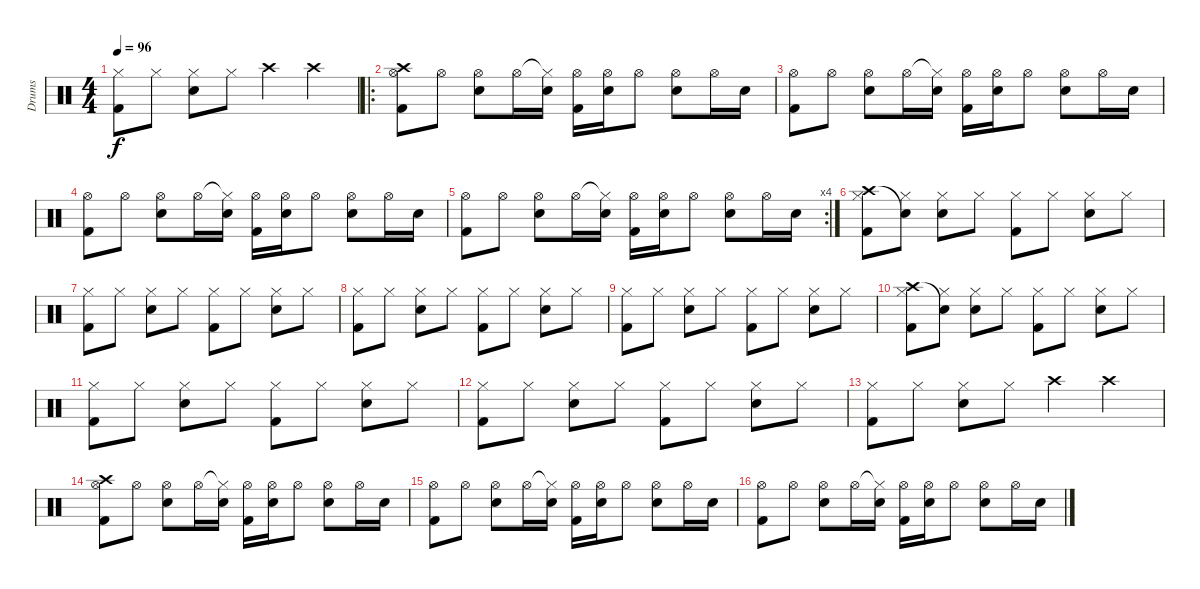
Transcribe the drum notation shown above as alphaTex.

\track ("Drums" "Drums") {instrument percussion}
\staff {score}
\articulation defaults
\ts (4 4)
\tempo 96
\clef neutral
\ks c
("Hi-Hat (closed)" "Kick (hit) 2").8{dy f} "Hi-Hat (closed)".8 ("Hi-Hat (closed)" "Snare (hit) 2").8 "Hi-Hat (closed)".8 "Crash high (hit)".4 "Crash high (hit)".4 |
\ro
("Crash high (hit)" "Hi-Hat (open)" "Kick (hit) 2").8 "Hi-Hat (open)".8 ("Hi-Hat (open)" "Snare (hit) 2").8 "Hi-Hat (open)".16 ("Hi-Hat (closed)"{t} "Snare (hit) 2").16 ("Hi-Hat (open)" "Kick (hit) 2").16 ("Hi-Hat (open)" "Snare (hit) 2").16 "Hi-Hat (open)".8 ("Hi-Hat (open)" "Snare (hit) 2").8 "Hi-Hat (open)".16 "Snare (hit) 2".16 |
("Hi-Hat (open)" "Kick (hit) 2").8 "Hi-Hat (open)".8 ("Hi-Hat (open)" "Snare (hit) 2").8 "Hi-Hat (open)".16 ("Hi-Hat (closed)"{t} "Snare (hit) 2").16 ("Hi-Hat (open)" "Kick (hit) 2").16 ("Hi-Hat (open)" "Snare (hit) 2").16 "Hi-Hat (open)".8 ("Hi-Hat (open)" "Snare (hit) 2").8 "Hi-Hat (open)".16 "Snare (hit) 2".16 |
("Hi-Hat (open)" "Kick (hit) 2").8 "Hi-Hat (open)".8 ("Hi-Hat (open)" "Snare (hit) 2").8 "Hi-Hat (open)".16 ("Hi-Hat (closed)"{t} "Snare (hit) 2").16 ("Hi-Hat (open)" "Kick (hit) 2").16 ("Hi-Hat (open)" "Snare (hit) 2").16 "Hi-Hat (open)".8 ("Hi-Hat (open)" "Snare (hit) 2").8 "Hi-Hat (open)".16 "Snare (hit) 2".16 |
\rc 4
("Hi-Hat (open)" "Kick (hit) 2").8 "Hi-Hat (open)".8 ("Hi-Hat (open)" "Snare (hit) 2").8 "Hi-Hat (open)".16 ("Hi-Hat (closed)"{t} "Snare (hit) 2").16 ("Hi-Hat (open)" "Kick (hit) 2").16 ("Hi-Hat (open)" "Snare (hit) 2").16 "Hi-Hat (open)".8 ("Hi-Hat (open)" "Snare (hit) 2").8 "Hi-Hat (open)".16 "Snare (hit) 2".16 |
("Crash high (hit)" "Hi-Hat (closed)" "Kick (hit) 2").8 ("Snare (hit)"{t} "Hi-Hat (closed)").8 ("Hi-Hat (closed)" "Snare (hit) 2").8 "Hi-Hat (closed)".8 ("Hi-Hat (closed)" "Kick (hit) 2").8 "Hi-Hat (closed)".8 ("Hi-Hat (closed)" "Snare (hit) 2").8 "Hi-Hat (closed)".8 |
("Hi-Hat (closed)" "Kick (hit) 2").8 "Hi-Hat (closed)".8 ("Hi-Hat (closed)" "Snare (hit) 2").8 "Hi-Hat (closed)".8 ("Hi-Hat (closed)" "Kick (hit) 2").8 "Hi-Hat (closed)".8 ("Hi-Hat (closed)" "Snare (hit) 2").8 "Hi-Hat (closed)".8 |
("Hi-Hat (closed)" "Kick (hit) 2").8 "Hi-Hat (closed)".8 ("Hi-Hat (closed)" "Snare (hit) 2").8 "Hi-Hat (closed)".8 ("Hi-Hat (closed)" "Kick (hit) 2").8 "Hi-Hat (closed)".8 ("Hi-Hat (closed)" "Snare (hit) 2").8 "Hi-Hat (closed)".8 |
("Hi-Hat (closed)" "Kick (hit) 2").8 "Hi-Hat (closed)".8 ("Hi-Hat (closed)" "Snare (hit) 2").8 "Hi-Hat (closed)".8 ("Hi-Hat (closed)" "Kick (hit) 2").8 "Hi-Hat (closed)".8 ("Hi-Hat (closed)" "Snare (hit) 2").8 "Hi-Hat (closed)".8 |
("Crash high (hit)" "Hi-Hat (closed)" "Kick (hit) 2").8 ("Snare (hit)"{t} "Hi-Hat (closed)").8 ("Hi-Hat (closed)" "Snare (hit) 2").8 "Hi-Hat (closed)".8 ("Hi-Hat (closed)" "Kick (hit) 2").8 "Hi-Hat (closed)".8 ("Hi-Hat (closed)" "Snare (hit) 2").8 "Hi-Hat (closed)".8 |
("Hi-Hat (closed)" "Kick (hit) 2").8 "Hi-Hat (closed)".8 ("Hi-Hat (closed)" "Snare (hit) 2").8 "Hi-Hat (closed)".8 ("Hi-Hat (closed)" "Kick (hit) 2").8 "Hi-Hat (closed)".8 ("Hi-Hat (closed)" "Snare (hit) 2").8 "Hi-Hat (closed)".8 |
("Hi-Hat (closed)" "Kick (hit) 2").8 "Hi-Hat (closed)".8 ("Hi-Hat (closed)" "Snare (hit) 2").8 "Hi-Hat (closed)".8 ("Hi-Hat (closed)" "Kick (hit) 2").8 "Hi-Hat (closed)".8 ("Hi-Hat (closed)" "Snare (hit) 2").8 "Hi-Hat (closed)".8 |
("Hi-Hat (closed)" "Kick (hit) 2").8 "Hi-Hat (closed)".8 ("Hi-Hat (closed)" "Snare (hit) 2").8 "Hi-Hat (closed)".8 "Crash high (hit)".4 "Crash high (hit)".4 |
("Crash high (hit)" "Hi-Hat (open)" "Kick (hit) 2").8 "Hi-Hat (open)".8 ("Hi-Hat (open)" "Snare (hit) 2").8 "Hi-Hat (open)".16 ("Hi-Hat (closed)"{t} "Snare (hit) 2").16 ("Hi-Hat (open)" "Kick (hit) 2").16 ("Hi-Hat (open)" "Snare (hit) 2").16 "Hi-Hat (open)".8 ("Hi-Hat (open)" "Snare (hit) 2").8 "Hi-Hat (open)".16 "Snare (hit) 2".16 |
("Hi-Hat (open)" "Kick (hit) 2").8 "Hi-Hat (open)".8 ("Hi-Hat (open)" "Snare (hit) 2").8 "Hi-Hat (open)".16 ("Hi-Hat (closed)"{t} "Snare (hit) 2").16 ("Hi-Hat (open)" "Kick (hit) 2").16 ("Hi-Hat (open)" "Snare (hit) 2").16 "Hi-Hat (open)".8 ("Hi-Hat (open)" "Snare (hit) 2").8 "Hi-Hat (open)".16 "Snare (hit) 2".16 |
("Hi-Hat (open)" "Kick (hit) 2").8 "Hi-Hat (open)".8 ("Hi-Hat (open)" "Snare (hit) 2").8 "Hi-Hat (open)".16 ("Hi-Hat (closed)"{t} "Snare (hit) 2").16 ("Hi-Hat (open)" "Kick (hit) 2").16 ("Hi-Hat (open)" "Snare (hit) 2").16 "Hi-Hat (open)".8 ("Hi-Hat (open)" "Snare (hit) 2").8 "Hi-Hat (open)".16 "Snare (hit) 2".16
